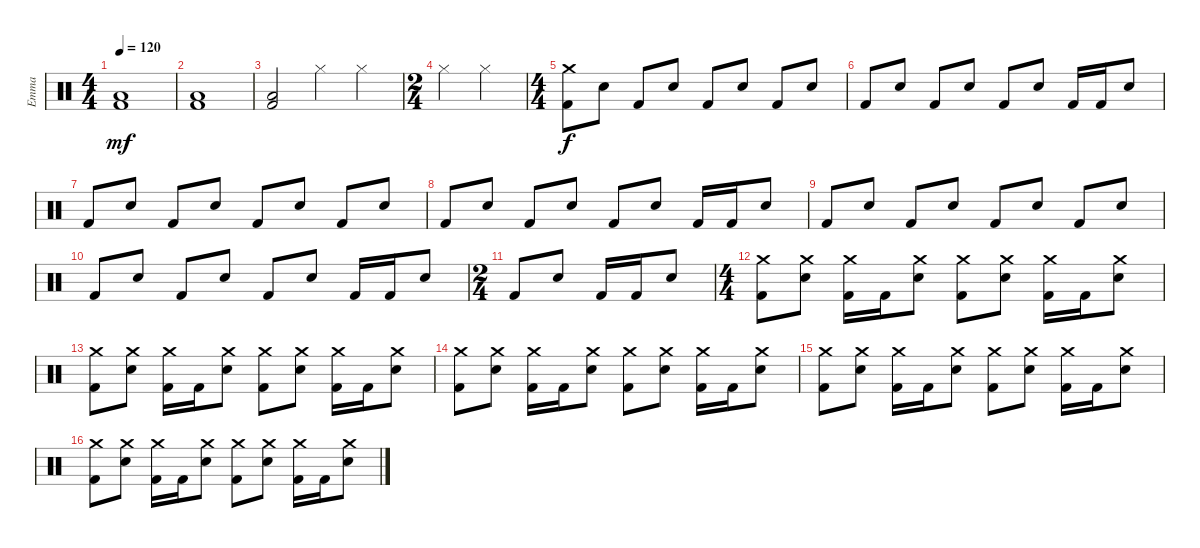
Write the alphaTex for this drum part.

\track ("Emma" "Emma") {instrument percussion}
\staff {score}
\articulation defaults
\ts (4 4)
\tempo 120
\clef neutral
\ks c
("Low Floor Tom (hit)" "Kick (hit) 2").1{dy mf} |
("Low Floor Tom (hit)" "Kick (hit) 2").1 |
("Low Floor Tom (hit)" "Kick (hit) 2").2 "Hi-Hat (closed)".4 "Hi-Hat (closed)".4 |
\ts (2 4)
"Hi-Hat (closed)".4 "Hi-Hat (closed)".4 |
\ts (4 4)
("Crash medium (hit)" "Kick (hit) 2").8{dy f} "Electric Snare (hit)".8 "Kick (hit) 2".8 "Electric Snare (hit)".8 "Kick (hit) 2".8 "Electric Snare (hit)".8 "Kick (hit) 2".8 "Electric Snare (hit)".8 |
"Kick (hit) 2".8 "Electric Snare (hit)".8 "Kick (hit) 2".8 "Electric Snare (hit)".8 "Kick (hit) 2".8 "Electric Snare (hit)".8 "Kick (hit) 2".16 "Kick (hit) 2".16 "Electric Snare (hit)".8 |
"Kick (hit) 2".8 "Electric Snare (hit)".8 "Kick (hit) 2".8 "Electric Snare (hit)".8 "Kick (hit) 2".8 "Electric Snare (hit)".8 "Kick (hit) 2".8 "Electric Snare (hit)".8 |
"Kick (hit) 2".8 "Electric Snare (hit)".8 "Kick (hit) 2".8 "Electric Snare (hit)".8 "Kick (hit) 2".8 "Electric Snare (hit)".8 "Kick (hit) 2".16 "Kick (hit) 2".16 "Electric Snare (hit)".8 |
"Kick (hit) 2".8 "Electric Snare (hit)".8 "Kick (hit) 2".8 "Electric Snare (hit)".8 "Kick (hit) 2".8 "Electric Snare (hit)".8 "Kick (hit) 2".8 "Electric Snare (hit)".8 |
"Kick (hit) 2".8 "Electric Snare (hit)".8 "Kick (hit) 2".8 "Electric Snare (hit)".8 "Kick (hit) 2".8 "Electric Snare (hit)".8 "Kick (hit) 2".16 "Kick (hit) 2".16 "Electric Snare (hit)".8 |
\ts (2 4)
"Kick (hit) 2".8 "Electric Snare (hit)".8 "Kick (hit) 2".16 "Kick (hit) 2".16 "Electric Snare (hit)".8 |
\ts (4 4)
("Crash medium (hit)" "Kick (hit) 2").8 ("Crash medium (hit)" "Electric Snare (hit)").8 ("Crash medium (hit)" "Kick (hit) 2").16 "Kick (hit) 2".16 ("Crash medium (hit)" "Electric Snare (hit)").8 ("Crash medium (hit)" "Kick (hit) 2").8 ("Crash medium (hit)" "Electric Snare (hit)").8 ("Crash medium (hit)" "Kick (hit) 2").16 "Kick (hit) 2".16 ("Crash medium (hit)" "Electric Snare (hit)").8 |
("Crash medium (hit)" "Kick (hit) 2").8 ("Crash medium (hit)" "Electric Snare (hit)").8 ("Crash medium (hit)" "Kick (hit) 2").16 "Kick (hit) 2".16 ("Crash medium (hit)" "Electric Snare (hit)").8 ("Crash medium (hit)" "Kick (hit) 2").8 ("Crash medium (hit)" "Electric Snare (hit)").8 ("Crash medium (hit)" "Kick (hit) 2").16 "Kick (hit) 2".16 ("Crash medium (hit)" "Electric Snare (hit)").8 |
("Crash medium (hit)" "Kick (hit) 2").8 ("Crash medium (hit)" "Electric Snare (hit)").8 ("Crash medium (hit)" "Kick (hit) 2").16 "Kick (hit) 2".16 ("Crash medium (hit)" "Electric Snare (hit)").8 ("Crash medium (hit)" "Kick (hit) 2").8 ("Crash medium (hit)" "Electric Snare (hit)").8 ("Crash medium (hit)" "Kick (hit) 2").16 "Kick (hit) 2".16 ("Crash medium (hit)" "Electric Snare (hit)").8 |
("Crash medium (hit)" "Kick (hit) 2").8 ("Crash medium (hit)" "Electric Snare (hit)").8 ("Crash medium (hit)" "Kick (hit) 2").16 "Kick (hit) 2".16 ("Crash medium (hit)" "Electric Snare (hit)").8 ("Crash medium (hit)" "Kick (hit) 2").8 ("Crash medium (hit)" "Electric Snare (hit)").8 ("Crash medium (hit)" "Kick (hit) 2").16 "Kick (hit) 2".16 ("Crash medium (hit)" "Electric Snare (hit)").8 |
("Crash medium (hit)" "Kick (hit) 2").8 ("Crash medium (hit)" "Electric Snare (hit)").8 ("Crash medium (hit)" "Kick (hit) 2").16 "Kick (hit) 2".16 ("Crash medium (hit)" "Electric Snare (hit)").8 ("Crash medium (hit)" "Kick (hit) 2").8 ("Crash medium (hit)" "Electric Snare (hit)").8 ("Crash medium (hit)" "Kick (hit) 2").16 "Kick (hit) 2".16 ("Crash medium (hit)" "Electric Snare (hit)").8
